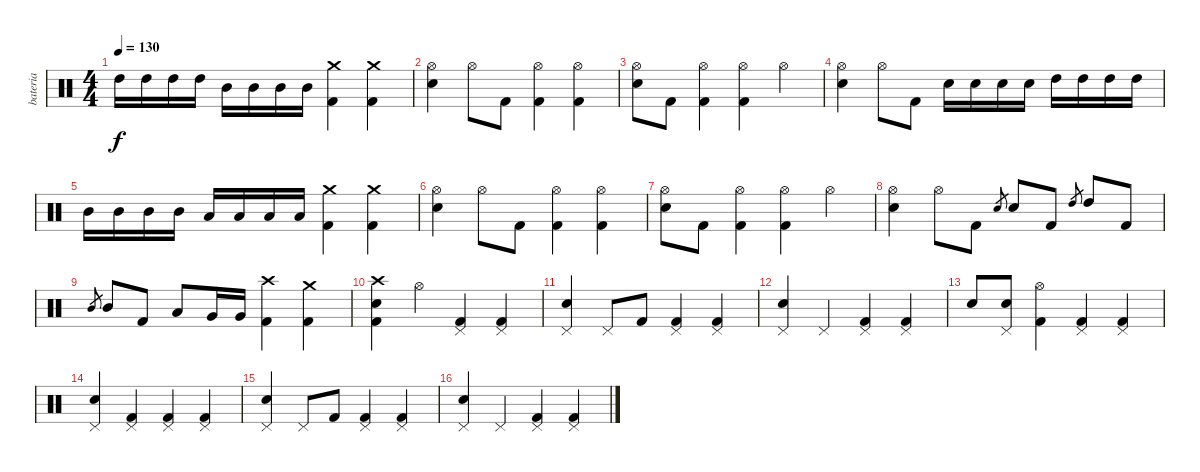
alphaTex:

\track ("bateria" "bateria") {instrument percussion}
\staff {score}
\articulation defaults
\ts (4 4)
\tempo 130
\clef neutral
\ks c "High Tom (hit)".16{dy f} "High Tom (hit)".16 "High Tom (hit)".16 "High Tom (hit)".16 "Mid Tom (hit)".16 "Mid Tom (hit)".16 "Mid Tom (hit)".16 "Mid Tom (hit)".16
("Crash medium (hit)" "Kick (hit) 2").4 ("Crash medium (hit)" "Kick (hit) 2").4 |
("Hi-Hat (open)" "Snare (hit) 2").4 "Hi-Hat (open)".8 "Kick (hit) 2".8 ("Hi-Hat (open)" "Kick (hit) 2").4 ("Hi-Hat (open)" "Kick (hit) 2").4 |
("Hi-Hat (open)" "Snare (hit) 2").8 "Kick (hit) 2".8 ("Hi-Hat (open)" "Kick (hit) 2").4 ("Hi-Hat (open)" "Kick (hit) 2").4 "Hi-Hat (open)".4 |
("Hi-Hat (open)" "Snare (hit) 2").4 "Hi-Hat (open)".8 "Kick (hit) 2".8 "Snare (hit) 2".16 "Snare (hit) 2".16 "Snare (hit) 2".16 "Snare (hit) 2".16 "High Tom (hit)".16 "High Tom (hit)".16 "High Tom (hit)".16 "High Tom (hit)".16 |
"Mid Tom (hit)".16 "Mid Tom (hit)".16 "Mid Tom (hit)".16 "Mid Tom (hit)".16 "Low Tom (hit)".16 "Low Tom (hit)".16 "Low Tom (hit)".16 "Low Tom (hit)".16 ("Crash medium (hit)" "Kick (hit) 2").4 ("Crash medium (hit)" "Kick (hit) 2").4 |
("Hi-Hat (open)" "Snare (hit) 2").4 "Hi-Hat (open)".8 "Kick (hit) 2".8 ("Hi-Hat (open)" "Kick (hit) 2").4 ("Hi-Hat (open)" "Kick (hit) 2").4 |
("Hi-Hat (open)" "Snare (hit) 2").8 "Kick (hit) 2".8 ("Hi-Hat (open)" "Kick (hit) 2").4 ("Hi-Hat (open)" "Kick (hit) 2").4 "Hi-Hat (open)".4 |
("Hi-Hat (open)" "Snare (hit) 2").4 "Hi-Hat (open)".8 "Kick (hit) 2".8 "Snare (hit) 2".8{gr} "Snare (hit) 2".8 "Kick (hit) 2".8 "High Tom (hit)".8{gr} "High Tom (hit)".8 "Kick (hit) 2".8 |
"Mid Tom (hit)".8{gr} "Mid Tom (hit)".8 "Kick (hit) 2".8 "Low Tom (hit)".8 "Very Low Tom (hit)".16 "Very Low Tom (hit)".16 ("Crash high (hit)" "Kick (hit) 2").4 ("Crash medium (hit)" "Kick (hit) 2").4 |
("Crash high (hit)" "Snare (hit) 2" "Kick (hit) 2").4 "Hi-Hat (open)".4 ("Pedal Hi-Hat (hit)" "Kick (hit) 2").4 ("Pedal Hi-Hat (hit)" "Kick (hit) 2").4 |
("Pedal Hi-Hat (hit)" "Snare (hit) 2").4 "Pedal Hi-Hat (hit)".8 "Kick (hit) 2".8 ("Pedal Hi-Hat (hit)" "Kick (hit) 2").4 ("Pedal Hi-Hat (hit)" "Kick (hit) 2").4 |
("Pedal Hi-Hat (hit)" "Snare (hit) 2").4 "Pedal Hi-Hat (hit)".4 ("Pedal Hi-Hat (hit)" "Kick (hit) 2").4 ("Pedal Hi-Hat (hit)" "Kick (hit) 2").4 |
"Snare (hit) 2".8 ("Pedal Hi-Hat (hit)" "Snare (hit) 2").8 ("Hi-Hat (open)" "Kick (hit) 2").4 ("Pedal Hi-Hat (hit)" "Kick (hit) 2").4 ("Pedal Hi-Hat (hit)" "Kick (hit) 2").4 |
("Pedal Hi-Hat (hit)" "Snare (hit) 2").4 ("Pedal Hi-Hat (hit)" "Kick (hit) 2").4 ("Pedal Hi-Hat (hit)" "Kick (hit) 2").4 ("Pedal Hi-Hat (hit)" "Kick (hit) 2").4 |
("Pedal Hi-Hat (hit)" "Snare (hit) 2").4 "Pedal Hi-Hat (hit)".8 "Kick (hit) 2".8 ("Pedal Hi-Hat (hit)" "Kick (hit) 2").4 ("Pedal Hi-Hat (hit)" "Kick (hit) 2").4 |
("Pedal Hi-Hat (hit)" "Snare (hit) 2").4 "Pedal Hi-Hat (hit)".4 ("Pedal Hi-Hat (hit)" "Kick (hit) 2").4 ("Pedal Hi-Hat (hit)" "Kick (hit) 2").4
